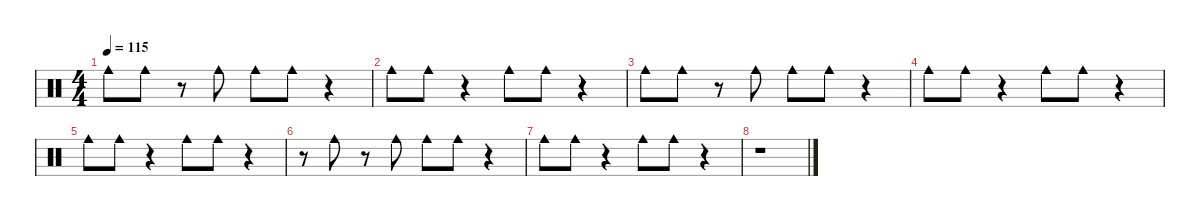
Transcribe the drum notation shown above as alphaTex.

\defaultSystemsLayout 4
\hideDynamics
\bracketExtendMode nobrackets
\singleTrackTrackNamePolicy hidden
\multiTrackTrackNamePolicy hidden
\otherSystemsTrackNameOrientation horizontal
\track ("Cowbell" "drm.") {defaultSystemsLayout 8 instrument percussion}
\staff {score}
\articulation defaults
\ts (4 4)
\tempo 115
\clef neutral
\ks c "Cowbell medium (hit)".8{dy f} "Cowbell medium (hit)".8
r.8 "Cowbell medium (hit)".8 "Cowbell medium (hit)".8 "Cowbell medium (hit)".8 r.4 |
"Cowbell medium (hit)".8 "Cowbell medium (hit)".8 r.4 "Cowbell medium (hit)".8 "Cowbell medium (hit)".8 r.4 |
"Cowbell medium (hit)".8 "Cowbell medium (hit)".8 r.8 "Cowbell medium (hit)".8 "Cowbell medium (hit)".8 "Cowbell medium (hit)".8 r.4 |
"Cowbell medium (hit)".8 "Cowbell medium (hit)".8 r.4 "Cowbell medium (hit)".8 "Cowbell medium (hit)".8 r.4 |
"Cowbell medium (hit)".8 "Cowbell medium (hit)".8 r.4 "Cowbell medium (hit)".8 "Cowbell medium (hit)".8 r.4 |
r.8 "Cowbell medium (hit)".8 r.8 "Cowbell medium (hit)".8 "Cowbell medium (hit)".8 "Cowbell medium (hit)".8 r.4 |
"Cowbell medium (hit)".8 "Cowbell medium (hit)".8 r.4 "Cowbell medium (hit)".8 "Cowbell medium (hit)".8 r.4 |
r.1
